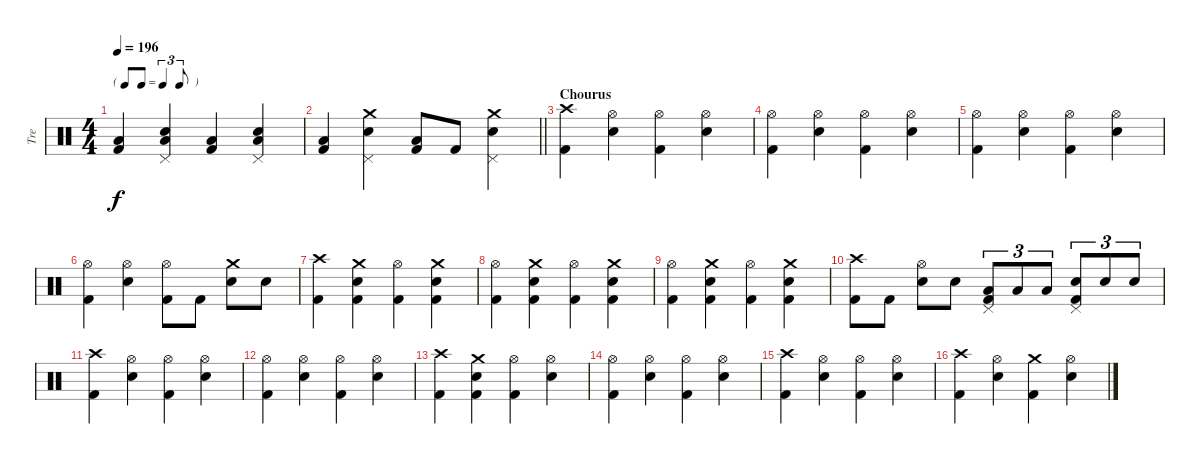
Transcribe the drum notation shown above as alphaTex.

\track ("Tre" "Tre") {instrument percussion}
\staff {score}
\articulation defaults
\ts (4 4)
\tf triplet8th
\tempo 196
\clef neutral
\ks c
("Low Floor Tom (hit)" "Kick (hit) 2").4{dy f} ("Snare (hit) 2" "Low Floor Tom (hit)" "Pedal Hi-Hat (hit)").4 ("Low Floor Tom (hit)" "Kick (hit) 2").4 ("Snare (hit) 2" "Low Floor Tom (hit)" "Pedal Hi-Hat (hit)").4 |
\barLineRight lightlight
("Low Floor Tom (hit)" "Kick (hit) 2").4 ("Crash medium (hit)" "Snare (hit) 2" "Pedal Hi-Hat (hit)").4 ("Low Floor Tom (hit)" "Kick (hit) 2").8 "Kick (hit) 2".8 ("Crash medium (hit)" "Snare (hit) 2" "Pedal Hi-Hat (hit)").4 |
\section ("" "Chourus")
("Crash high (hit)" "Kick (hit) 2").4 ("Hi-Hat (open)" "Snare (hit) 2").4 ("Hi-Hat (open)" "Kick (hit) 2").4 ("Hi-Hat (open)" "Snare (hit) 2").4 |
("Hi-Hat (open)" "Kick (hit) 2").4 ("Hi-Hat (open)" "Snare (hit) 2").4 ("Hi-Hat (open)" "Kick (hit) 2").4 ("Hi-Hat (open)" "Snare (hit) 2").4 |
("Hi-Hat (open)" "Kick (hit) 2").4 ("Hi-Hat (open)" "Snare (hit) 2").4 ("Hi-Hat (open)" "Kick (hit) 2").4 ("Hi-Hat (open)" "Snare (hit) 2").4 |
("Hi-Hat (open)" "Kick (hit) 2").4 ("Hi-Hat (open)" "Snare (hit) 2").4 ("Hi-Hat (open)" "Kick (hit) 2").8 "Kick (hit) 2".8 ("Crash medium (hit)" "Snare (hit) 2").8 "Snare (hit) 2".8 |
("Crash high (hit)" "Kick (hit) 2").4 ("Crash medium (hit)" "Snare (hit) 2" "Kick (hit) 2").4 ("Hi-Hat (open)" "Kick (hit) 2").4 ("Crash medium (hit)" "Snare (hit) 2" "Kick (hit) 2").4 |
("Hi-Hat (open)" "Kick (hit) 2").4 ("Crash medium (hit)" "Snare (hit) 2" "Kick (hit) 2").4 ("Hi-Hat (open)" "Kick (hit) 2").4 ("Crash medium (hit)" "Snare (hit) 2" "Kick (hit) 2").4 |
("Hi-Hat (open)" "Kick (hit) 2").4 ("Crash medium (hit)" "Snare (hit) 2" "Kick (hit) 2").4 ("Hi-Hat (open)" "Kick (hit) 2").4 ("Crash medium (hit)" "Snare (hit) 2" "Kick (hit) 2").4 |
("Crash high (hit)" "Kick (hit) 2").8 "Kick (hit) 2".8 ("Hi-Hat (open)" "Snare (hit) 2").8 "Snare (hit) 2".8 ("Low Tom (hit)" "Pedal Hi-Hat (hit)" "Kick (hit) 2").8{tu (3 2)} "Low Tom (hit)".8{tu (3 2)} "Low Tom (hit)".8{tu (3 2)} ("Snare (hit) 2" "Pedal Hi-Hat (hit)" "Kick (hit) 2").8{tu (3 2)} "Snare (hit) 2".8{tu (3 2)} "Snare (hit) 2".8{tu (3 2)} |
("Crash high (hit)" "Kick (hit) 2").4 ("Hi-Hat (open)" "Snare (hit) 2").4 ("Hi-Hat (open)" "Kick (hit) 2").4 ("Hi-Hat (open)" "Snare (hit) 2").4 |
("Hi-Hat (open)" "Kick (hit) 2").4 ("Hi-Hat (open)" "Snare (hit) 2").4 ("Hi-Hat (open)" "Kick (hit) 2").4 ("Hi-Hat (open)" "Snare (hit) 2").4 |
("Crash high (hit)" "Kick (hit) 2").4 ("Crash medium (hit)" "Snare (hit) 2" "Kick (hit) 2").4 ("Hi-Hat (open)" "Kick (hit) 2").4 ("Hi-Hat (open)" "Snare (hit) 2").4 |
("Hi-Hat (open)" "Kick (hit) 2").4 ("Hi-Hat (open)" "Snare (hit) 2").4 ("Hi-Hat (open)" "Kick (hit) 2").4 ("Hi-Hat (open)" "Snare (hit) 2").4 |
("Crash high (hit)" "Kick (hit) 2").4 ("Hi-Hat (open)" "Snare (hit) 2").4 ("Hi-Hat (open)" "Kick (hit) 2").4 ("Hi-Hat (open)" "Snare (hit) 2").4 |
("Crash high (hit)" "Kick (hit) 2").4 ("Hi-Hat (open)" "Snare (hit) 2").4 ("Crash medium (hit)" "Kick (hit) 2").4 ("Hi-Hat (open)" "Snare (hit) 2").4
